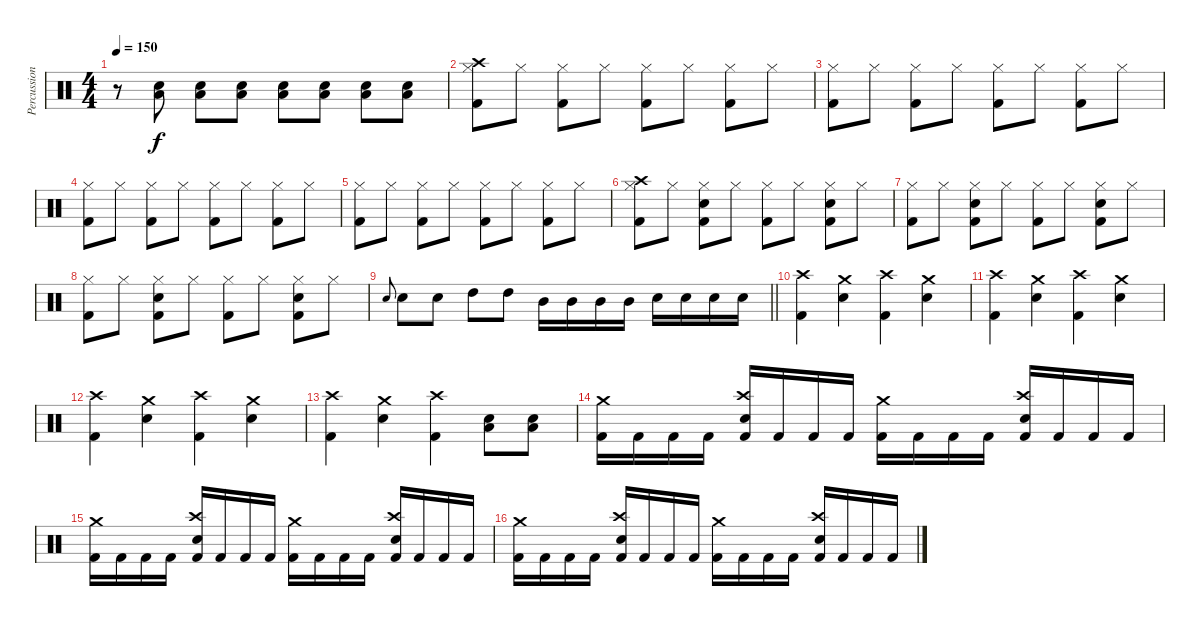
\track ("Percussion" "Percussion") {instrument percussion}
\staff {score}
\articulation defaults
\ts (4 4)
\tempo 150
\clef neutral
\ks c
r.8{dy f} ("Low Floor Tom (hit)" "Snare (hit) 2").8 ("Low Floor Tom (hit)" "Snare (hit) 2").8 ("Low Floor Tom (hit)" "Snare (hit) 2").8 ("Low Floor Tom (hit)" "Snare (hit) 2").8 ("Low Floor Tom (hit)" "Snare (hit) 2").8 ("Low Floor Tom (hit)" "Snare (hit) 2").8 ("Low Floor Tom (hit)" "Snare (hit) 2").8 |
("Crash high (hit)" "Hi-Hat (closed)" "Kick (hit) 2").8 "Hi-Hat (closed)".8 ("Hi-Hat (closed)" "Kick (hit) 2").8 "Hi-Hat (closed)".8 ("Hi-Hat (closed)" "Kick (hit) 2").8 "Hi-Hat (closed)".8 ("Hi-Hat (closed)" "Kick (hit) 2").8 "Hi-Hat (closed)".8 |
("Hi-Hat (closed)" "Kick (hit) 2").8 "Hi-Hat (closed)".8 ("Hi-Hat (closed)" "Kick (hit) 2").8 "Hi-Hat (closed)".8 ("Hi-Hat (closed)" "Kick (hit) 2").8 "Hi-Hat (closed)".8 ("Hi-Hat (closed)" "Kick (hit) 2").8 "Hi-Hat (closed)".8 |
("Hi-Hat (closed)" "Kick (hit) 2").8 "Hi-Hat (closed)".8 ("Hi-Hat (closed)" "Kick (hit) 2").8 "Hi-Hat (closed)".8 ("Hi-Hat (closed)" "Kick (hit) 2").8 "Hi-Hat (closed)".8 ("Hi-Hat (closed)" "Kick (hit) 2").8 "Hi-Hat (closed)".8 |
("Hi-Hat (closed)" "Kick (hit) 2").8 "Hi-Hat (closed)".8 ("Hi-Hat (closed)" "Kick (hit) 2").8 "Hi-Hat (closed)".8 ("Hi-Hat (closed)" "Kick (hit) 2").8 "Hi-Hat (closed)".8 ("Hi-Hat (closed)" "Kick (hit) 2").8 "Hi-Hat (closed)".8 |
("Crash high (hit)" "Hi-Hat (closed)" "Kick (hit) 2").8 "Hi-Hat (closed)".8 ("Snare (hit) 2" "Hi-Hat (closed)" "Kick (hit) 2").8 "Hi-Hat (closed)".8 ("Hi-Hat (closed)" "Kick (hit) 2").8 "Hi-Hat (closed)".8 ("Snare (hit) 2" "Hi-Hat (closed)" "Kick (hit) 2").8 "Hi-Hat (closed)".8 |
("Hi-Hat (closed)" "Kick (hit) 2").8 "Hi-Hat (closed)".8 ("Snare (hit) 2" "Hi-Hat (closed)" "Kick (hit) 2").8 "Hi-Hat (closed)".8 ("Hi-Hat (closed)" "Kick (hit) 2").8 "Hi-Hat (closed)".8 ("Snare (hit) 2" "Hi-Hat (closed)" "Kick (hit) 2").8 "Hi-Hat (closed)".8 |
("Hi-Hat (closed)" "Kick (hit) 2").8 "Hi-Hat (closed)".8 ("Snare (hit) 2" "Hi-Hat (closed)" "Kick (hit) 2").8 "Hi-Hat (closed)".8 ("Hi-Hat (closed)" "Kick (hit) 2").8 "Hi-Hat (closed)".8 ("Snare (hit) 2" "Hi-Hat (closed)" "Kick (hit) 2").8 "Hi-Hat (closed)".8 |
\barLineRight lightlight "Snare (hit) 2".8{gr onbeat} "Snare (hit) 2".8 "Snare (hit) 2".8 "High Tom (hit)".8 "High Tom (hit)".8 "Mid Tom (hit)".16 "Mid Tom (hit)".16 "Mid Tom (hit)".16 "Mid Tom (hit)".16 "Snare (hit) 2".16 "Snare (hit) 2".16 "Snare (hit) 2".16 "Snare (hit) 2".16
|
("Crash high (hit)" "Kick (hit) 2").4 ("Crash medium (hit)" "Snare (hit) 2").4 ("Crash high (hit)" "Kick (hit) 2").4 ("Crash medium (hit)" "Snare (hit) 2").4 |
("Crash high (hit)" "Kick (hit) 2").4 ("Crash medium (hit)" "Snare (hit) 2").4 ("Crash high (hit)" "Kick (hit) 2").4 ("Crash medium (hit)" "Snare (hit) 2").4 |
("Crash high (hit)" "Kick (hit) 2").4 ("Crash medium (hit)" "Snare (hit) 2").4 ("Crash high (hit)" "Kick (hit) 2").4 ("Crash medium (hit)" "Snare (hit) 2").4 |
("Crash high (hit)" "Kick (hit) 2").4 ("Crash medium (hit)" "Snare (hit) 2").4 ("Crash high (hit)" "Kick (hit) 2").4 ("Snare (hit) 2" "Low Floor Tom (hit)").8 ("Snare (hit) 2" "Low Floor Tom (hit)").8 |
("Crash medium (hit)" "Kick (hit) 2").16 "Kick (hit) 2".16 "Kick (hit) 2".16 "Kick (hit) 2".16 ("Crash high (hit)" "Snare (hit) 2" "Kick (hit) 2").16 "Kick (hit) 2".16 "Kick (hit) 2".16 "Kick (hit) 2".16 ("Crash medium (hit)" "Kick (hit) 2").16 "Kick (hit) 2".16 "Kick (hit) 2".16 "Kick (hit) 2".16 ("Crash high (hit)" "Snare (hit) 2" "Kick (hit) 2").16 "Kick (hit) 2".16 "Kick (hit) 2".16 "Kick (hit) 2".16 |
("Crash medium (hit)" "Kick (hit) 2").16 "Kick (hit) 2".16 "Kick (hit) 2".16 "Kick (hit) 2".16 ("Crash high (hit)" "Snare (hit) 2" "Kick (hit) 2").16 "Kick (hit) 2".16 "Kick (hit) 2".16 "Kick (hit) 2".16 ("Crash medium (hit)" "Kick (hit) 2").16 "Kick (hit) 2".16 "Kick (hit) 2".16 "Kick (hit) 2".16 ("Crash high (hit)" "Snare (hit) 2" "Kick (hit) 2").16 "Kick (hit) 2".16 "Kick (hit) 2".16 "Kick (hit) 2".16 |
("Crash medium (hit)" "Kick (hit) 2").16 "Kick (hit) 2".16 "Kick (hit) 2".16 "Kick (hit) 2".16 ("Crash high (hit)" "Snare (hit) 2" "Kick (hit) 2").16 "Kick (hit) 2".16 "Kick (hit) 2".16 "Kick (hit) 2".16 ("Crash medium (hit)" "Kick (hit) 2").16 "Kick (hit) 2".16 "Kick (hit) 2".16 "Kick (hit) 2".16 ("Crash high (hit)" "Snare (hit) 2" "Kick (hit) 2").16 "Kick (hit) 2".16 "Kick (hit) 2".16 "Kick (hit) 2".16
